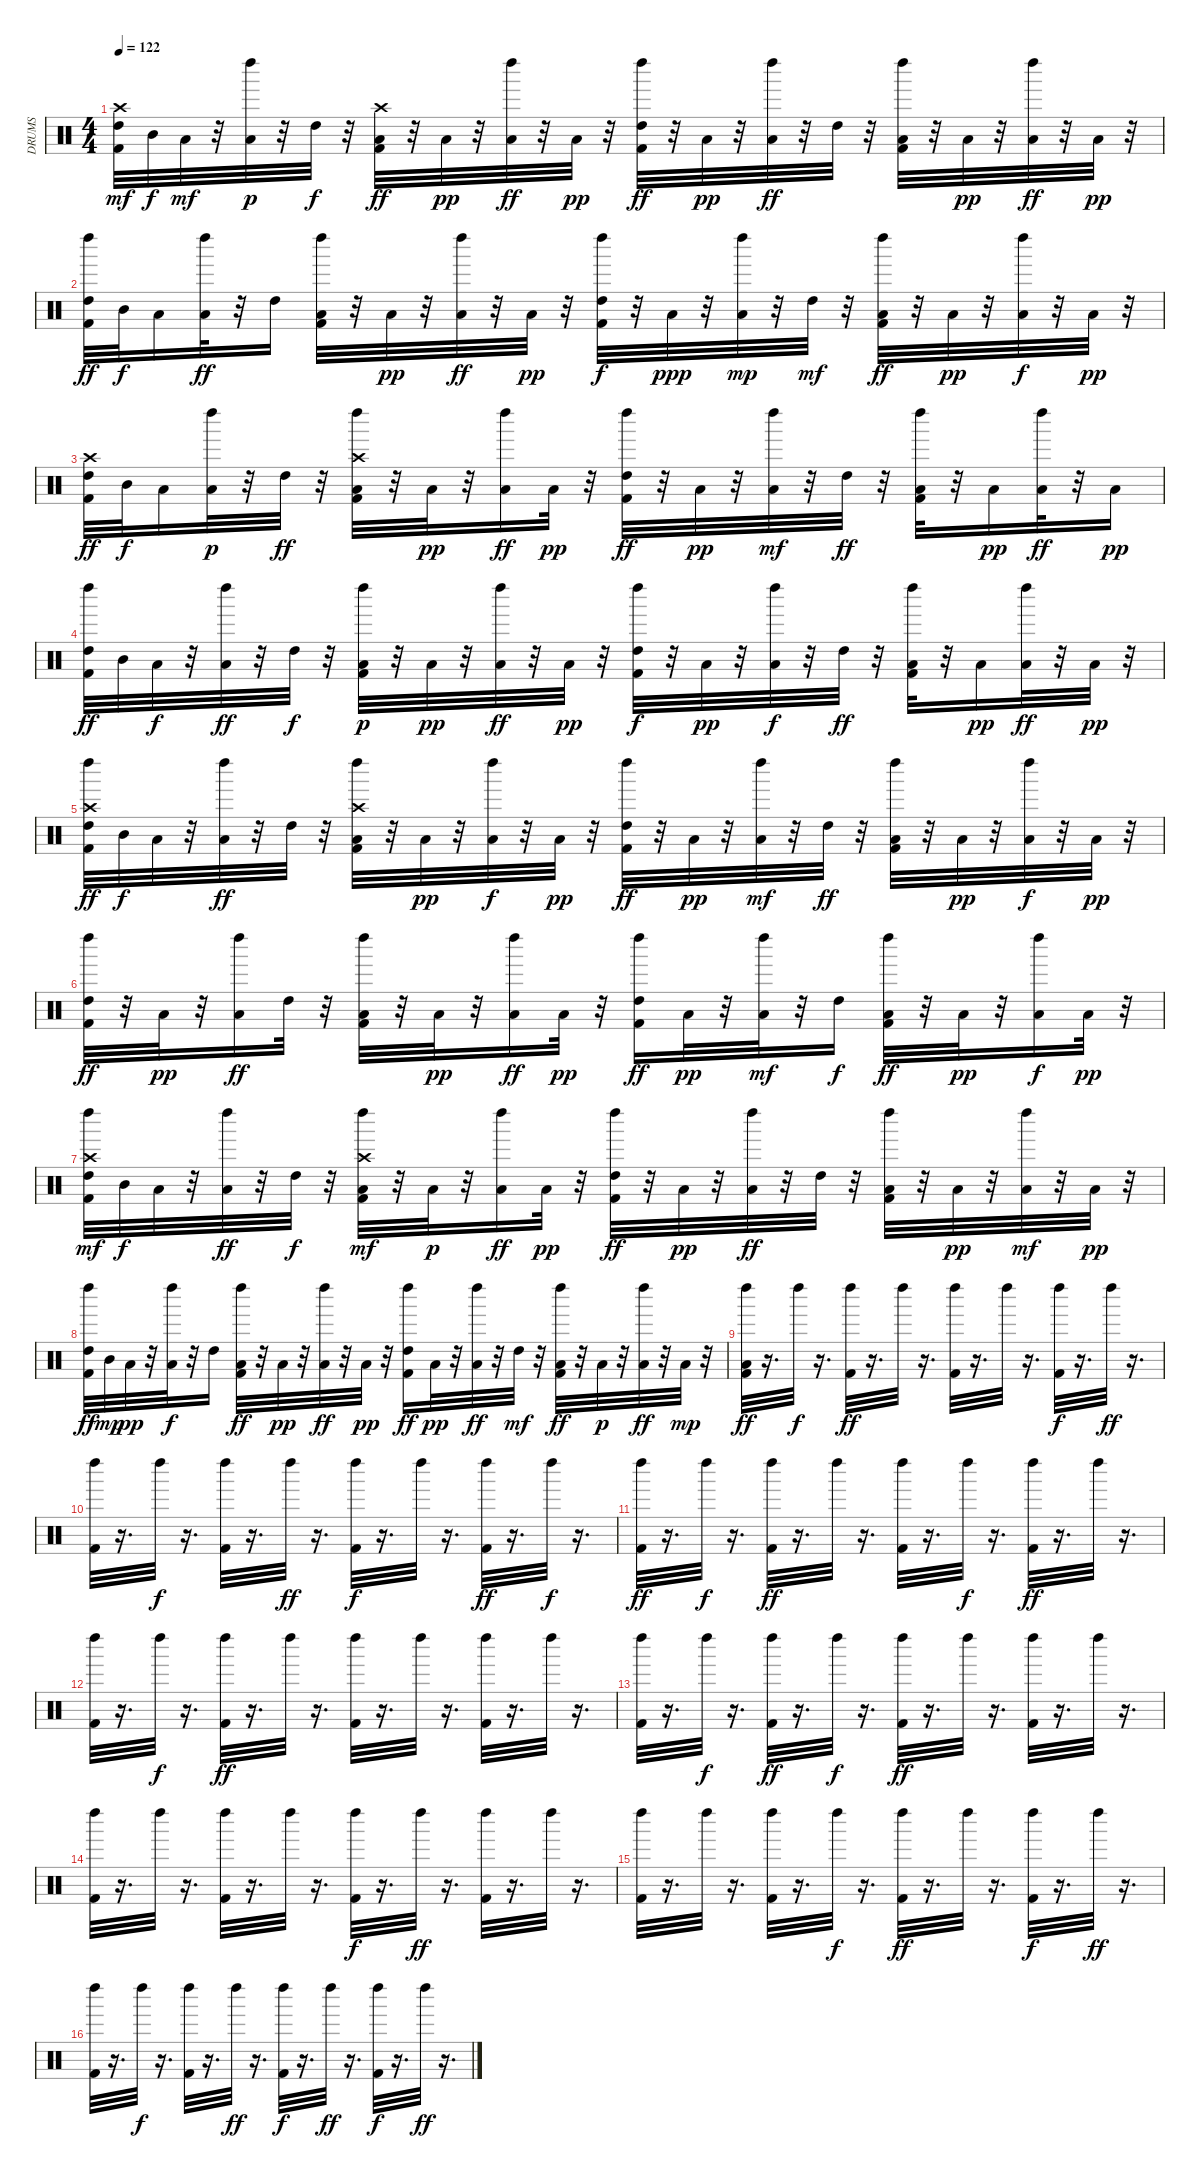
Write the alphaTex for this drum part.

\track ("DRUMS" "DRUMS") {instrument percussion}
\staff {score}
\articulation defaults
\ts (4 4)
\tempo 122
\clef neutral
\ks c
("High Tom (hit)" "Crash high (hit)" "Kick (hit) 2").32{dy mf} "Mid Tom (hit)".32{dy f} "Low Tom (hit)".32{dy mf} r.32 ("Low Tom (hit)" "Left Maraca (hit)").32{dy p} r.32 "High Tom (hit)".32{dy f} r.32 ("Low Tom (hit)" "Crash high (hit)" "Kick (hit) 2").32{dy ff} r.32 "Low Tom (hit)".32{dy pp} r.32 ("Low Floor Tom (hit)" "Left Maraca (hit)").32{dy ff} r.32 "Low Tom (hit)".32{dy pp} r.32 ("High Tom (hit)" "Left Maraca (hit)" "Kick (hit) 2").32{dy ff} r.32 "Low Tom (hit)".32{dy pp} r.32 ("Low Tom (hit)" "Left Maraca (hit)").32{dy ff} r.32 "High Tom (hit)".32 r.32 ("Low Tom (hit)" "Left Maraca (hit)" "Kick (hit) 2").32 r.32 "Low Tom (hit)".32{dy pp} r.32 ("Low Floor Tom (hit)" "Left Maraca (hit)").32{dy ff} r.32 "Low Tom (hit)".32{dy pp} r.32 |
("High Tom (hit)" "Left Maraca (hit)" "Kick (hit) 2").32{dy ff} "Mid Tom (hit)".32{dy f} "Low Tom (hit)".16 ("Low Tom (hit)" "Left Maraca (hit)").32{dy ff} r.32 "High Tom (hit)".16 ("Low Tom (hit)" "Left Maraca (hit)" "Kick (hit) 2").32 r.32 "Low Tom (hit)".32{dy pp} r.32 ("Low Floor Tom (hit)" "Left Maraca (hit)").32{dy ff} r.32 "Low Tom (hit)".32{dy pp} r.32 ("High Tom (hit)" "Left Maraca (hit)" "Kick (hit) 2").32{dy f} r.32 "Low Tom (hit)".32{dy ppp} r.32 ("Low Tom (hit)" "Left Maraca (hit)").32{dy mp} r.32 "High Tom (hit)".32{dy mf} r.32 ("Low Tom (hit)" "Left Maraca (hit)" "Kick (hit) 2").32{dy ff} r.32 "Low Tom (hit)".32{dy pp} r.32 ("Low Floor Tom (hit)" "Left Maraca (hit)").32{dy f} r.32 "Low Tom (hit)".32{dy pp} r.32 |
("High Tom (hit)" "Crash high (hit)" "Kick (hit) 2").32{dy ff} "Mid Tom (hit)".32{dy f} "Low Tom (hit)".16 ("Low Tom (hit)" "Left Maraca (hit)").32{dy p} r.32 "High Tom (hit)".32{dy ff} r.32 ("Low Tom (hit)" "Left Maraca (hit)" "Crash high (hit)" "Kick (hit) 2").32 r.32 "Low Tom (hit)".32{dy pp} r.32 ("Low Floor Tom (hit)" "Left Maraca (hit)").16{dy ff} "Low Tom (hit)".32{dy pp} r.32 ("High Tom (hit)" "Left Maraca (hit)" "Kick (hit) 2").32{dy ff} r.32 "Low Tom (hit)".32{dy pp} r.32 ("Low Tom (hit)" "Left Maraca (hit)").32{dy mf} r.32 "High Tom (hit)".32{dy ff} r.32 ("Low Tom (hit)" "Left Maraca (hit)" "Kick (hit) 2").32 r.32 "Low Tom (hit)".16{dy pp} ("Low Floor Tom (hit)" "Left Maraca (hit)").32{dy ff} r.32 "Low Tom (hit)".16{dy pp} |
("High Tom (hit)" "Left Maraca (hit)" "Kick (hit) 2").32{dy ff} "Mid Tom (hit)".32 "Low Tom (hit)".32{dy f} r.32 ("Low Tom (hit)" "Left Maraca (hit)").32{dy ff} r.32 "High Tom (hit)".32{dy f} r.32 ("Low Tom (hit)" "Left Maraca (hit)" "Kick (hit) 2").32{dy p} r.32 "Low Tom (hit)".32{dy pp} r.32 ("Low Floor Tom (hit)" "Left Maraca (hit)").32{dy ff} r.32 "Low Tom (hit)".32{dy pp} r.32 ("High Tom (hit)" "Left Maraca (hit)" "Kick (hit) 2").32{dy f} r.32 "Low Tom (hit)".32{dy pp} r.32 ("Low Tom (hit)" "Left Maraca (hit)").32{dy f} r.32 "High Tom (hit)".32{dy ff} r.32 ("Low Tom (hit)" "Left Maraca (hit)" "Kick (hit) 2").32 r.32 "Low Tom (hit)".16{dy pp} ("Low Floor Tom (hit)" "Left Maraca (hit)").32{dy ff} r.32 "Low Tom (hit)".32{dy pp} r.32 |
("High Tom (hit)" "Left Maraca (hit)" "Crash high (hit)" "Kick (hit) 2").32{dy ff} "Mid Tom (hit)".32{dy f} "Low Tom (hit)".32 r.32 ("Low Tom (hit)" "Left Maraca (hit)").32{dy ff} r.32 "High Tom (hit)".32 r.32 ("Low Tom (hit)" "Left Maraca (hit)" "Crash high (hit)" "Kick (hit) 2").32 r.32 "Low Tom (hit)".32{dy pp} r.32 ("Low Floor Tom (hit)" "Left Maraca (hit)").32{dy f} r.32 "Low Tom (hit)".32{dy pp} r.32 ("High Tom (hit)" "Left Maraca (hit)" "Kick (hit) 2").32{dy ff} r.32 "Low Tom (hit)".32{dy pp} r.32 ("Low Tom (hit)" "Left Maraca (hit)").32{dy mf} r.32 "High Tom (hit)".32{dy ff} r.32 ("Low Tom (hit)" "Left Maraca (hit)" "Kick (hit) 2").32 r.32 "Low Tom (hit)".32{dy pp} r.32 ("Low Floor Tom (hit)" "Left Maraca (hit)").32{dy f} r.32 "Low Tom (hit)".32{dy pp} r.32 |
("High Tom (hit)" "Left Maraca (hit)" "Kick (hit) 2").32{dy ff} r.32 "Low Tom (hit)".32{dy pp} r.32 ("Low Tom (hit)" "Left Maraca (hit)").16{dy ff} "High Tom (hit)".32 r.32 ("Low Tom (hit)" "Left Maraca (hit)" "Kick (hit) 2").32 r.32 "Low Tom (hit)".32{dy pp} r.32 ("Low Floor Tom (hit)" "Left Maraca (hit)").16{dy ff} "Low Tom (hit)".32{dy pp} r.32 ("High Tom (hit)" "Left Maraca (hit)" "Kick (hit) 2").16{dy ff} "Low Tom (hit)".32{dy pp} r.32 ("Low Tom (hit)" "Left Maraca (hit)").32{dy mf} r.32 "High Tom (hit)".16{dy f} ("Low Tom (hit)" "Left Maraca (hit)" "Kick (hit) 2").32{dy ff} r.32 "Low Tom (hit)".32{dy pp} r.32 ("Low Floor Tom (hit)" "Left Maraca (hit)").16{dy f} "Low Tom (hit)".32{dy pp} r.32 |
("High Tom (hit)" "Left Maraca (hit)" "Crash high (hit)" "Kick (hit) 2").32{dy mf} "Mid Tom (hit)".32{dy f} "Low Tom (hit)".32 r.32 ("Low Tom (hit)" "Left Maraca (hit)").32{dy ff} r.32 "High Tom (hit)".32{dy f} r.32 ("Low Tom (hit)" "Left Maraca (hit)" "Kick (hit) 2" "Crash high (hit)").32{dy mf} r.32 "Low Tom (hit)".32{dy p} r.32 ("Low Floor Tom (hit)" "Left Maraca (hit)").16{dy ff} "Low Tom (hit)".32{dy pp} r.32 ("High Tom (hit)" "Left Maraca (hit)" "Kick (hit) 2").32{dy ff} r.32 "Low Tom (hit)".32{dy pp} r.32 ("Low Tom (hit)" "Left Maraca (hit)").32{dy ff} r.32 "High Tom (hit)".32 r.32 ("Low Tom (hit)" "Left Maraca (hit)" "Kick (hit) 2").32 r.32 "Low Tom (hit)".32{dy pp} r.32 ("Low Floor Tom (hit)" "Left Maraca (hit)").32{dy mf} r.32 "Low Tom (hit)".32{dy pp} r.32 |
("High Tom (hit)" "Left Maraca (hit)" "Kick (hit) 2").32{dy ff} "Mid Tom (hit)".32{dy mp} "Low Tom (hit)".32{dy pp} r.32 ("Low Tom (hit)" "Left Maraca (hit)").32{dy f} r.32 "High Tom (hit)".16 ("Low Tom (hit)" "Left Maraca (hit)" "Kick (hit) 2").32{dy ff} r.32 "Low Tom (hit)".32{dy pp} r.32 ("Low Floor Tom (hit)" "Left Maraca (hit)").32{dy ff} r.32 "Low Tom (hit)".32{dy pp} r.32 ("High Tom (hit)" "Left Maraca (hit)" "Kick (hit) 2").16{dy ff} "Low Tom (hit)".32{dy pp} r.32 ("Low Tom (hit)" "Left Maraca (hit)").32{dy ff} r.32 "High Tom (hit)".32{dy mf} r.32 ("Low Floor Tom (hit)" "Left Maraca (hit)" "Kick (hit) 2").32{dy ff} r.32 "Low Tom (hit)".32{dy p} r.32 ("Low Floor Tom (hit)" "Left Maraca (hit)").32{dy ff} r.32 "Low Tom (hit)".32{dy mp} r.32 |
("Low Floor Tom (hit)" "Left Maraca (hit)" "Kick (hit) 2").32{dy ff} r.16{d} "Left Maraca (hit)".32{dy f} r.16{d} ("Left Maraca (hit)" "Kick (hit) 2").32{dy ff} r.16{d} "Left Maraca (hit)".32 r.16{d} ("Left Maraca (hit)" "Kick (hit) 2").32 r.16{d} "Left Maraca (hit)".32 r.16{d} ("Left Maraca (hit)" "Kick (hit) 2").32{dy f} r.16{d} "Left Maraca (hit)".32{dy ff} r.16{d} |
("Left Maraca (hit)" "Kick (hit) 2").32 r.16{d} "Left Maraca (hit)".32{dy f} r.16{d} ("Left Maraca (hit)" "Kick (hit) 2").32 r.16{d} "Left Maraca (hit)".32{dy ff} r.16{d} ("Left Maraca (hit)" "Kick (hit) 2").32{dy f} r.16{d} "Left Maraca (hit)".32 r.16{d} ("Left Maraca (hit)" "Kick (hit) 2").32{dy ff} r.16{d} "Left Maraca (hit)".32{dy f} r.16{d} |
("Left Maraca (hit)" "Kick (hit) 2").32{dy ff} r.16{d} "Left Maraca (hit)".32{dy f} r.16{d} ("Left Maraca (hit)" "Kick (hit) 2").32{dy ff} r.16{d} "Left Maraca (hit)".32 r.16{d} ("Left Maraca (hit)" "Kick (hit) 2").32 r.16{d} "Left Maraca (hit)".32{dy f} r.16{d} ("Left Maraca (hit)" "Kick (hit) 2").32{dy ff} r.16{d} "Left Maraca (hit)".32 r.16{d} |
("Left Maraca (hit)" "Kick (hit) 2").32 r.16{d} "Left Maraca (hit)".32{dy f} r.16{d} ("Left Maraca (hit)" "Kick (hit) 2").32{dy ff} r.16{d} "Left Maraca (hit)".32 r.16{d} ("Left Maraca (hit)" "Kick (hit) 2").32 r.16{d} "Left Maraca (hit)".32 r.16{d} ("Left Maraca (hit)" "Kick (hit) 2").32 r.16{d} "Left Maraca (hit)".32 r.16{d} |
("Left Maraca (hit)" "Kick (hit) 2").32 r.16{d} "Left Maraca (hit)".32{dy f} r.16{d} ("Left Maraca (hit)" "Kick (hit) 2").32{dy ff} r.16{d} "Left Maraca (hit)".32{dy f} r.16{d} ("Left Maraca (hit)" "Kick (hit) 2").32{dy ff} r.16{d} "Left Maraca (hit)".32 r.16{d} ("Left Maraca (hit)" "Kick (hit) 2").32 r.16{d} "Left Maraca (hit)".32 r.16{d} |
("Left Maraca (hit)" "Kick (hit) 2").32 r.16{d} "Left Maraca (hit)".32 r.16{d} ("Left Maraca (hit)" "Kick (hit) 2").32 r.16{d} "Left Maraca (hit)".32 r.16{d} ("Left Maraca (hit)" "Kick (hit) 2").32{dy f} r.16{d} "Left Maraca (hit)".32{dy ff} r.16{d} ("Left Maraca (hit)" "Kick (hit) 2").32 r.16{d} "Left Maraca (hit)".32 r.16{d} |
("Left Maraca (hit)" "Kick (hit) 2").32 r.16{d} "Left Maraca (hit)".32 r.16{d} ("Left Maraca (hit)" "Kick (hit) 2").32 r.16{d} "Left Maraca (hit)".32{dy f} r.16{d} ("Left Maraca (hit)" "Kick (hit) 2").32{dy ff} r.16{d} "Left Maraca (hit)".32 r.16{d} ("Left Maraca (hit)" "Kick (hit) 2").32{dy f} r.16{d} "Left Maraca (hit)".32{dy ff} r.16{d} |
("Left Maraca (hit)" "Kick (hit) 2").32 r.16{d} "Left Maraca (hit)".32{dy f} r.16{d} ("Left Maraca (hit)" "Kick (hit) 2").32 r.16{d} "Left Maraca (hit)".32{dy ff} r.16{d} ("Left Maraca (hit)" "Kick (hit) 2").32{dy f} r.16{d} "Left Maraca (hit)".32{dy ff} r.16{d} ("Left Maraca (hit)" "Kick (hit) 2").32{dy f} r.16{d} "Left Maraca (hit)".32{dy ff} r.16{d}
